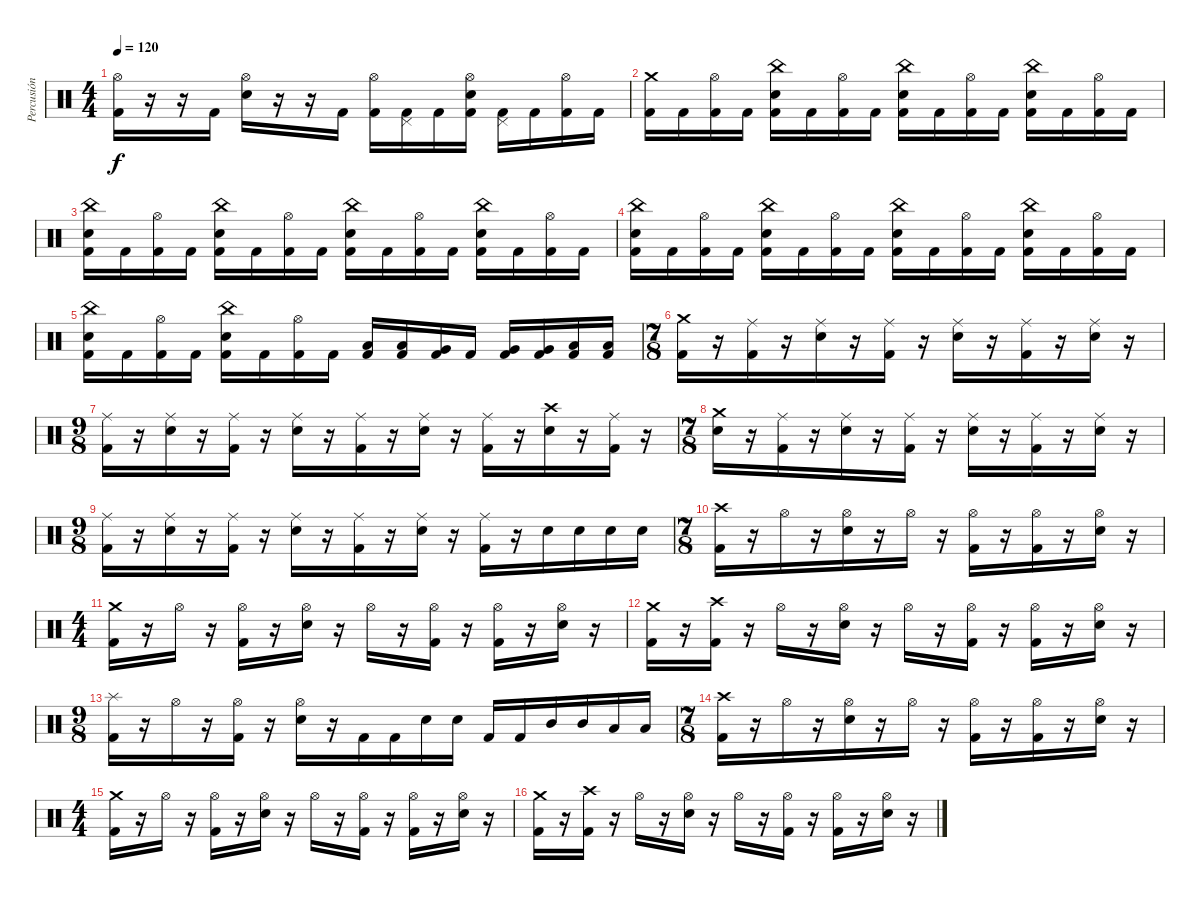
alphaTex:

\track ("Percusión" "Percusión") {instrument percussion}
\staff {score}
\articulation defaults
\ts (4 4)
\tempo 120
\clef neutral
\ks c
("Hi-Hat (open)" "Kick (hit) 2").16{dy f} r.16 r.16 "Kick (hit) 2".16 ("Hi-Hat (open)" "Electric Snare (hit)").16 r.16 r.16 "Kick (hit) 2".16 ("Hi-Hat (open)" "Kick (hit) 2").16 ("Pedal Hi-Hat (hit)" "Kick (hit) 2").16 "Kick (hit) 2".16 ("Hi-Hat (open)" "Electric Snare (hit)" "Kick (hit) 2").16 ("Pedal Hi-Hat (hit)" "Kick (hit) 2").16 "Kick (hit) 2".16 ("Hi-Hat (open)" "Kick (hit) 2").16 "Kick (hit) 2".16 |
("Crash medium (hit)" "Kick (hit) 2").16 "Kick (hit) 2".16 ("Hi-Hat (open)" "Kick (hit) 2").16 "Kick (hit) 2".16 ("China (hit)" "Electric Snare (hit)" "Kick (hit) 2").16 "Kick (hit) 2".16 ("Hi-Hat (open)" "Kick (hit) 2").16 "Kick (hit) 2".16 ("China (hit)" "Electric Snare (hit)" "Kick (hit) 2").16 "Kick (hit) 2".16 ("Hi-Hat (open)" "Kick (hit) 2").16 "Kick (hit) 2".16 ("China (hit)" "Electric Snare (hit)" "Kick (hit) 2").16 "Kick (hit) 2".16 ("Hi-Hat (open)" "Kick (hit) 2").16 "Kick (hit) 2".16 |
("China (hit)" "Electric Snare (hit)" "Kick (hit) 2").16 "Kick (hit) 2".16 ("Hi-Hat (open)" "Kick (hit) 2").16 "Kick (hit) 2".16 ("China (hit)" "Electric Snare (hit)" "Kick (hit) 2").16 "Kick (hit) 2".16 ("Hi-Hat (open)" "Kick (hit) 2").16 "Kick (hit) 2".16 ("China (hit)" "Electric Snare (hit)" "Kick (hit) 2").16 "Kick (hit) 2".16 ("Hi-Hat (open)" "Kick (hit) 2").16 "Kick (hit) 2".16 ("China (hit)" "Electric Snare (hit)" "Kick (hit) 2").16 "Kick (hit) 2".16 ("Hi-Hat (open)" "Kick (hit) 2").16 "Kick (hit) 2".16 |
("China (hit)" "Electric Snare (hit)" "Kick (hit) 2").16 "Kick (hit) 2".16 ("Hi-Hat (open)" "Kick (hit) 2").16 "Kick (hit) 2".16 ("China (hit)" "Electric Snare (hit)" "Kick (hit) 2").16 "Kick (hit) 2".16 ("Hi-Hat (open)" "Kick (hit) 2").16 "Kick (hit) 2".16 ("China (hit)" "Electric Snare (hit)" "Kick (hit) 2").16 "Kick (hit) 2".16 ("Hi-Hat (open)" "Kick (hit) 2").16 "Kick (hit) 2".16 ("China (hit)" "Electric Snare (hit)" "Kick (hit) 2").16 "Kick (hit) 2".16 ("Hi-Hat (open)" "Kick (hit) 2").16 "Kick (hit) 2".16 |
("China (hit)" "Electric Snare (hit)" "Kick (hit) 2").16 "Kick (hit) 2".16 ("Hi-Hat (open)" "Kick (hit) 2").16 "Kick (hit) 2".16 ("China (hit)" "Electric Snare (hit)" "Kick (hit) 2").16 "Kick (hit) 2".16 ("Hi-Hat (open)" "Kick (hit) 2").16 "Kick (hit) 2".16 ("Low Tom (hit)" "Kick (hit) 2").16 ("Low Tom (hit)" "Kick (hit) 2").16 ("Very Low Tom (hit)" "Kick (hit) 2").16 "Kick (hit) 2".16 ("Very Low Tom (hit)" "Kick (hit) 2").16 ("Very Low Tom (hit)" "Kick (hit) 2").16 ("Low Floor Tom (hit)" "Kick (hit) 2").16 ("Low Floor Tom (hit)" "Kick (hit) 2").16 |
\ts (7 8)
("Crash medium (hit)" "Kick (hit) 2").16 r.16 ("Ride (middle)" "Kick (hit) 2").16 r.16 ("Ride (middle)" "Electric Snare (hit)").16 r.16 ("Ride (middle)" "Kick (hit) 2").16 r.16 ("Ride (middle)" "Electric Snare (hit)").16 r.16 ("Ride (middle)" "Kick (hit) 2").16 r.16 ("Ride (middle)" "Electric Snare (hit)").16 r.16 |
\ts (9 8)
("Ride (middle)" "Kick (hit) 2").16 r.16 ("Ride (middle)" "Electric Snare (hit)").16 r.16 ("Ride (middle)" "Kick (hit) 2").16 r.16 ("Ride (middle)" "Electric Snare (hit)").16 r.16 ("Ride (middle)" "Kick (hit) 2").16 r.16 ("Ride (middle)" "Electric Snare (hit)").16 r.16 ("Ride (middle)" "Kick (hit) 2").16 r.16 ("Crash high (hit)" "Electric Snare (hit)").16 r.16 ("Ride (middle)" "Kick (hit) 2").16 r.16 |
\ts (7 8)
("Crash medium (hit)" "Electric Snare (hit)").16 r.16 ("Ride (middle)" "Kick (hit) 2").16 r.16 ("Ride (middle)" "Electric Snare (hit)").16 r.16 ("Ride (middle)" "Kick (hit) 2").16 r.16 ("Ride (middle)" "Electric Snare (hit)").16 r.16 ("Ride (middle)" "Kick (hit) 2").16 r.16 ("Ride (middle)" "Electric Snare (hit)").16 r.16 |
\ts (9 8)
("Ride (middle)" "Kick (hit) 2").16 r.16 ("Ride (middle)" "Electric Snare (hit)").16 r.16 ("Ride (middle)" "Kick (hit) 2").16 r.16 ("Ride (middle)" "Electric Snare (hit)").16 r.16 ("Ride (middle)" "Kick (hit) 2").16 r.16 ("Ride (middle)" "Electric Snare (hit)").16 r.16 ("Ride (middle)" "Kick (hit) 2").16 r.16 "Electric Snare (hit)".16 "Electric Snare (hit)".16 "Electric Snare (hit)".16 "Electric Snare (hit)".16 |
\ts (7 8)
("Crash high (hit)" "Kick (hit) 2").16 r.16 "Hi-Hat (open)".16 r.16 ("Hi-Hat (open)" "Electric Snare (hit)").16 r.16 "Hi-Hat (open)".16 r.16 ("Hi-Hat (open)" "Kick (hit) 2").16 r.16 ("Hi-Hat (open)" "Kick (hit) 2").16 r.16 ("Hi-Hat (open)" "Electric Snare (hit)").16 r.16 |
\ts (4 4)
("Crash medium (hit)" "Kick (hit) 2").16 r.16 "Hi-Hat (open)".16 r.16 ("Hi-Hat (open)" "Kick (hit) 2").16 r.16 ("Hi-Hat (open)" "Electric Snare (hit)").16 r.16 "Hi-Hat (open)".16 r.16 ("Hi-Hat (open)" "Kick (hit) 2").16 r.16 ("Hi-Hat (open)" "Kick (hit) 2").16 r.16 ("Hi-Hat (open)" "Electric Snare (hit)").16 r.16 |
("Crash medium (hit)" "Kick (hit) 2").16 r.16 ("Crash high (hit)" "Kick (hit) 2").16 r.16 "Hi-Hat (open)".16 r.16 ("Hi-Hat (open)" "Electric Snare (hit)").16 r.16 "Hi-Hat (open)".16 r.16 ("Hi-Hat (open)" "Kick (hit) 2").16 r.16 ("Hi-Hat (open)" "Kick (hit) 2").16 r.16 ("Hi-Hat (open)" "Electric Snare (hit)").16 r.16 |
\ts (9 8)
("Splash (hit)" "Kick (hit) 2").16 r.16 "Hi-Hat (open)".16 r.16 ("Hi-Hat (open)" "Kick (hit) 2").16 r.16 ("Hi-Hat (open)" "Electric Snare (hit)").16 r.16 "Kick (hit) 2".16 "Kick (hit) 2".16 "Electric Snare (hit)".16 "Electric Snare (hit)".16 "Kick (hit) 2".16 "Kick (hit) 2".16 "Mid Tom (hit)".16 "Mid Tom (hit)".16 "Low Tom (hit)".16 "Low Tom (hit)".16 |
\ts (7 8)
("Crash high (hit)" "Kick (hit) 2").16 r.16 "Hi-Hat (open)".16 r.16 ("Hi-Hat (open)" "Electric Snare (hit)").16 r.16 "Hi-Hat (open)".16 r.16 ("Hi-Hat (open)" "Kick (hit) 2").16 r.16 ("Hi-Hat (open)" "Kick (hit) 2").16 r.16 ("Hi-Hat (open)" "Electric Snare (hit)").16 r.16 |
\ts (4 4)
("Crash medium (hit)" "Kick (hit) 2").16 r.16 "Hi-Hat (open)".16 r.16 ("Hi-Hat (open)" "Kick (hit) 2").16 r.16 ("Hi-Hat (open)" "Electric Snare (hit)").16 r.16 "Hi-Hat (open)".16 r.16 ("Hi-Hat (open)" "Kick (hit) 2").16 r.16 ("Hi-Hat (open)" "Kick (hit) 2").16 r.16 ("Hi-Hat (open)" "Electric Snare (hit)").16 r.16 |
("Crash medium (hit)" "Kick (hit) 2").16 r.16 ("Crash high (hit)" "Kick (hit) 2").16 r.16 "Hi-Hat (open)".16 r.16 ("Hi-Hat (open)" "Electric Snare (hit)").16 r.16 "Hi-Hat (open)".16 r.16 ("Hi-Hat (open)" "Kick (hit) 2").16 r.16 ("Hi-Hat (open)" "Kick (hit) 2").16 r.16 ("Hi-Hat (open)" "Electric Snare (hit)").16 r.16
